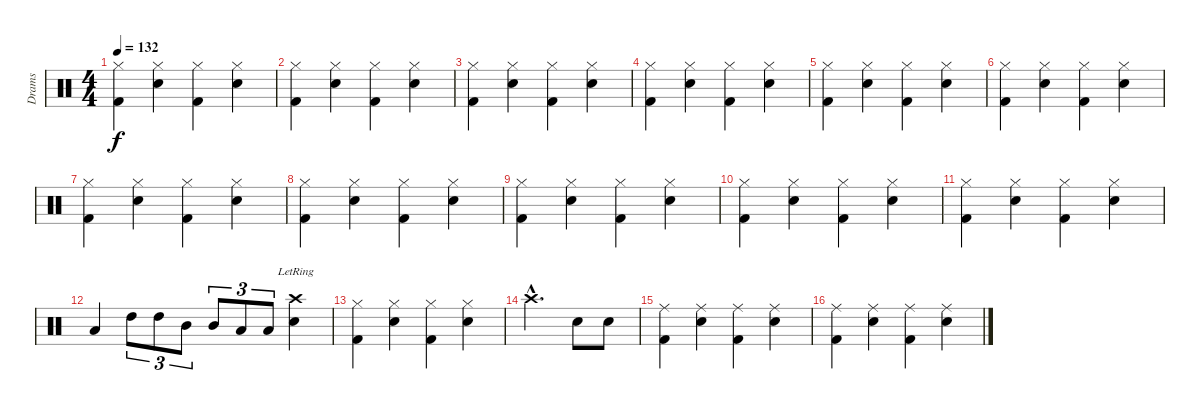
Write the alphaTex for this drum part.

\track ("Drams" "Drams") {instrument percussion}
\staff {score}
\articulation defaults
\ts (4 4)
\tempo 132
\clef neutral
\ks c
("Hi-Hat (closed)" "Kick (hit) 2").4{dy f} ("Hi-Hat (closed)" "Snare (hit) 2").4 ("Hi-Hat (closed)" "Kick (hit) 2").4 ("Hi-Hat (closed)" "Snare (hit) 2").4 |
("Hi-Hat (closed)" "Kick (hit) 2").4 ("Hi-Hat (closed)" "Snare (hit) 2").4 ("Hi-Hat (closed)" "Kick (hit) 2").4 ("Hi-Hat (closed)" "Snare (hit) 2").4 |
("Hi-Hat (closed)" "Kick (hit) 2").4 ("Hi-Hat (closed)" "Snare (hit) 2").4 ("Hi-Hat (closed)" "Kick (hit) 2").4 ("Hi-Hat (closed)" "Snare (hit) 2").4 |
("Hi-Hat (closed)" "Kick (hit) 2").4 ("Hi-Hat (closed)" "Snare (hit) 2").4 ("Hi-Hat (closed)" "Kick (hit) 2").4 ("Hi-Hat (closed)" "Snare (hit) 2").4 |
("Hi-Hat (closed)" "Kick (hit) 2").4 ("Hi-Hat (closed)" "Snare (hit) 2").4 ("Hi-Hat (closed)" "Kick (hit) 2").4 ("Hi-Hat (closed)" "Snare (hit) 2").4 |
("Hi-Hat (closed)" "Kick (hit) 2").4 ("Hi-Hat (closed)" "Snare (hit) 2").4 ("Hi-Hat (closed)" "Kick (hit) 2").4 ("Hi-Hat (closed)" "Snare (hit) 2").4 |
("Hi-Hat (closed)" "Kick (hit) 2").4 ("Hi-Hat (closed)" "Snare (hit) 2").4 ("Hi-Hat (closed)" "Kick (hit) 2").4 ("Hi-Hat (closed)" "Snare (hit) 2").4 |
("Hi-Hat (closed)" "Kick (hit) 2").4 ("Hi-Hat (closed)" "Snare (hit) 2").4 ("Hi-Hat (closed)" "Kick (hit) 2").4 ("Hi-Hat (closed)" "Snare (hit) 2").4 |
("Hi-Hat (closed)" "Kick (hit) 2").4 ("Hi-Hat (closed)" "Snare (hit) 2").4 ("Hi-Hat (closed)" "Kick (hit) 2").4 ("Hi-Hat (closed)" "Snare (hit) 2").4 |
("Hi-Hat (closed)" "Kick (hit) 2").4 ("Hi-Hat (closed)" "Snare (hit) 2").4 ("Hi-Hat (closed)" "Kick (hit) 2").4 ("Hi-Hat (closed)" "Snare (hit) 2").4 |
("Hi-Hat (closed)" "Kick (hit) 2").4 ("Hi-Hat (closed)" "Snare (hit) 2").4 ("Hi-Hat (closed)" "Kick (hit) 2").4 ("Hi-Hat (closed)" "Snare (hit) 2").4 |
"Low Floor Tom (hit)".4 "High Tom (hit)".8{tu (3 2)} "High Tom (hit)".8{tu (3 2)} "Mid Tom (hit)".8{tu (3 2)} "Mid Tom (hit)".8{tu (3 2)} "Low Tom (hit)".8{tu (3 2)} "Low Tom (hit)".8{tu (3 2)} ("Crash high (hit)"{lr} "Snare (hit) 2").4 |
("Hi-Hat (closed)" "Kick (hit) 2").4 ("Hi-Hat (closed)" "Snare (hit) 2").4 ("Hi-Hat (closed)" "Kick (hit) 2").4 ("Hi-Hat (closed)" "Snare (hit) 2").4 |
"Crash high (hit)"{hac}.2{d} "Snare (hit) 2".8 "Snare (hit) 2".8 |
("Ride (middle)" "Kick (hit) 2").4 ("Ride (middle)" "Snare (hit) 2").4 ("Ride (middle)" "Kick (hit) 2").4 ("Ride (middle)" "Snare (hit) 2").4 |
("Ride (middle)" "Kick (hit) 2").4 ("Ride (middle)" "Snare (hit) 2").4 ("Ride (middle)" "Kick (hit) 2").4 ("Ride (middle)" "Snare (hit) 2").4
